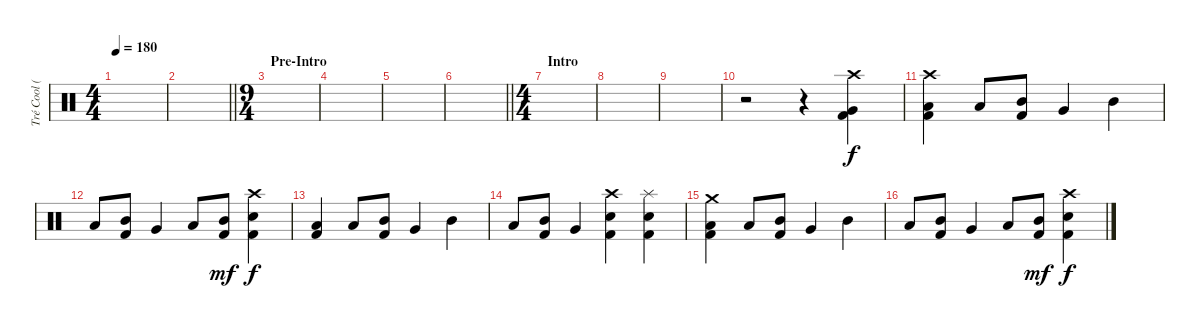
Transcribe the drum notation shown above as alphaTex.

\track ("Tré Cool (Drums)" "Tré Cool (") {instrument percussion}
\staff {score}
\articulation defaults
\ts (4 4)
\tempo 180
\clef neutral
\ks c
|
\barLineRight lightlight
|
\ts (9 4)
\section ("" "Pre-Intro")
|
|
|
\barLineRight lightlight
|
\ts (4 4)
\section ("" "Intro")
|
|
|
r.2 r.4 ("Crash high (hit)" "Very Low Tom (hit)" "Kick (hit) 2").4 |
("Crash high (hit)" "Low Tom (hit)" "Kick (hit) 2").4 "Low Tom (hit)".8 ("Mid Tom (hit)" "Kick (hit) 2").8 "Very Low Tom (hit)".4 "Mid Tom (hit)".4 |
"Low Tom (hit)".8 ("Mid Tom (hit)" "Kick (hit) 2").8 "Very Low Tom (hit)".4 "Low Tom (hit)".8 ("Mid Tom (hit)" "Kick (hit) 2").8{dy mf} ("Crash high (hit)" "Electric Snare (hit)" "Kick (hit) 2").4{dy f} |
("Low Tom (hit)" "Kick (hit) 2").4 "Low Tom (hit)".8 ("Mid Tom (hit)" "Kick (hit) 2").8 "Very Low Tom (hit)".4 "Mid Tom (hit)".4 |
"Low Tom (hit)".8 ("Mid Tom (hit)" "Kick (hit) 2").8 "Very Low Tom (hit)".4 ("Crash high (hit)" "Electric Snare (hit)" "Kick (hit) 2").4 ("Splash (hit)" "Electric Snare (hit)" "Kick (hit) 2").4 |
("Crash medium (hit)" "Low Tom (hit)" "Kick (hit) 2").4 "Low Tom (hit)".8 ("Mid Tom (hit)" "Kick (hit) 2").8 "Very Low Tom (hit)".4 "Mid Tom (hit)".4 |
"Low Tom (hit)".8 ("Mid Tom (hit)" "Kick (hit) 2").8 "Very Low Tom (hit)".4 "Low Tom (hit)".8 ("Mid Tom (hit)" "Kick (hit) 2").8{dy mf} ("Crash high (hit)" "Electric Snare (hit)" "Kick (hit) 2").4{dy f}
